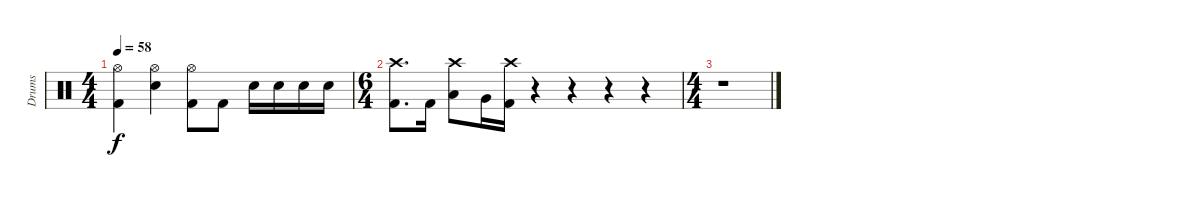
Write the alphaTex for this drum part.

\track ("Drums" "Drums") {instrument percussion}
\staff {score}
\articulation defaults
\ts (4 4)
\tempo 58
\clef neutral
\ks c
("Hi-Hat (open)" "Kick (hit) 2").4{dy f} ("Hi-Hat (open)" "Snare (hit) 2").4 ("Hi-Hat (open)" "Kick (hit) 2").8 "Kick (hit) 2".8 "Snare (hit) 2".16 "Snare (hit) 2".16 "Snare (hit) 2".16 "Snare (hit) 2".16 |
\ts (6 4)
("Crash high (hit)" "Kick (hit) 2").8{d} "Kick (hit) 2".16 ("Crash high (hit)" "Low Tom (hit)").8 "Very Low Tom (hit)".16 ("Crash high (hit)" "Kick (hit) 2").16 r.4 r.4 r.4 r.4 |
\ts (4 4)
r.1
